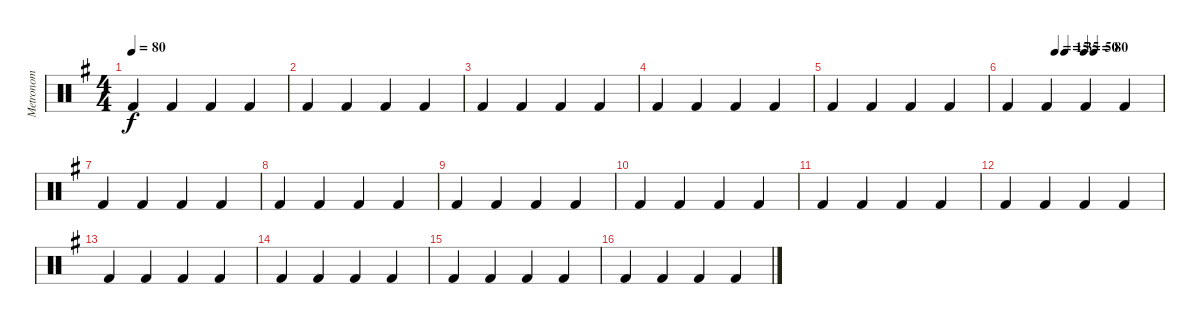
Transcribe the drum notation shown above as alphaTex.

\track ("Metronom" "Metronom") {instrument percussion}
\staff {score}
\articulation defaults
\ts (4 4)
\tempo 80
\clef neutral
\ks g "Kick (hit) 2".4{dy f} "Kick (hit) 2".4 "Kick (hit) 2".4 "Kick (hit) 2".4
|
"Kick (hit) 2".4 "Kick (hit) 2".4 "Kick (hit) 2".4 "Kick (hit) 2".4 |
"Kick (hit) 2".4 "Kick (hit) 2".4 "Kick (hit) 2".4 "Kick (hit) 2".4 |
"Kick (hit) 2".4 "Kick (hit) 2".4 "Kick (hit) 2".4 "Kick (hit) 2".4 |
"Kick (hit) 2".4 "Kick (hit) 2".4 "Kick (hit) 2".4 "Kick (hit) 2".4 |
\tempo (15 0.3125)
\tempo (35 0.375)
\tempo (50 0.5)
\tempo (80 0.5625)
"Kick (hit) 2".4 "Kick (hit) 2".4 "Kick (hit) 2".4 "Kick (hit) 2".4 |
"Kick (hit) 2".4 "Kick (hit) 2".4 "Kick (hit) 2".4 "Kick (hit) 2".4 |
"Kick (hit) 2".4 "Kick (hit) 2".4 "Kick (hit) 2".4 "Kick (hit) 2".4 |
"Kick (hit) 2".4 "Kick (hit) 2".4 "Kick (hit) 2".4 "Kick (hit) 2".4 |
"Kick (hit) 2".4 "Kick (hit) 2".4 "Kick (hit) 2".4 "Kick (hit) 2".4 |
"Kick (hit) 2".4 "Kick (hit) 2".4 "Kick (hit) 2".4 "Kick (hit) 2".4 |
"Kick (hit) 2".4 "Kick (hit) 2".4 "Kick (hit) 2".4 "Kick (hit) 2".4 |
"Kick (hit) 2".4 "Kick (hit) 2".4 "Kick (hit) 2".4 "Kick (hit) 2".4 |
"Kick (hit) 2".4 "Kick (hit) 2".4 "Kick (hit) 2".4 "Kick (hit) 2".4 |
"Kick (hit) 2".4 "Kick (hit) 2".4 "Kick (hit) 2".4 "Kick (hit) 2".4 |
"Kick (hit) 2".4 "Kick (hit) 2".4 "Kick (hit) 2".4 "Kick (hit) 2".4
